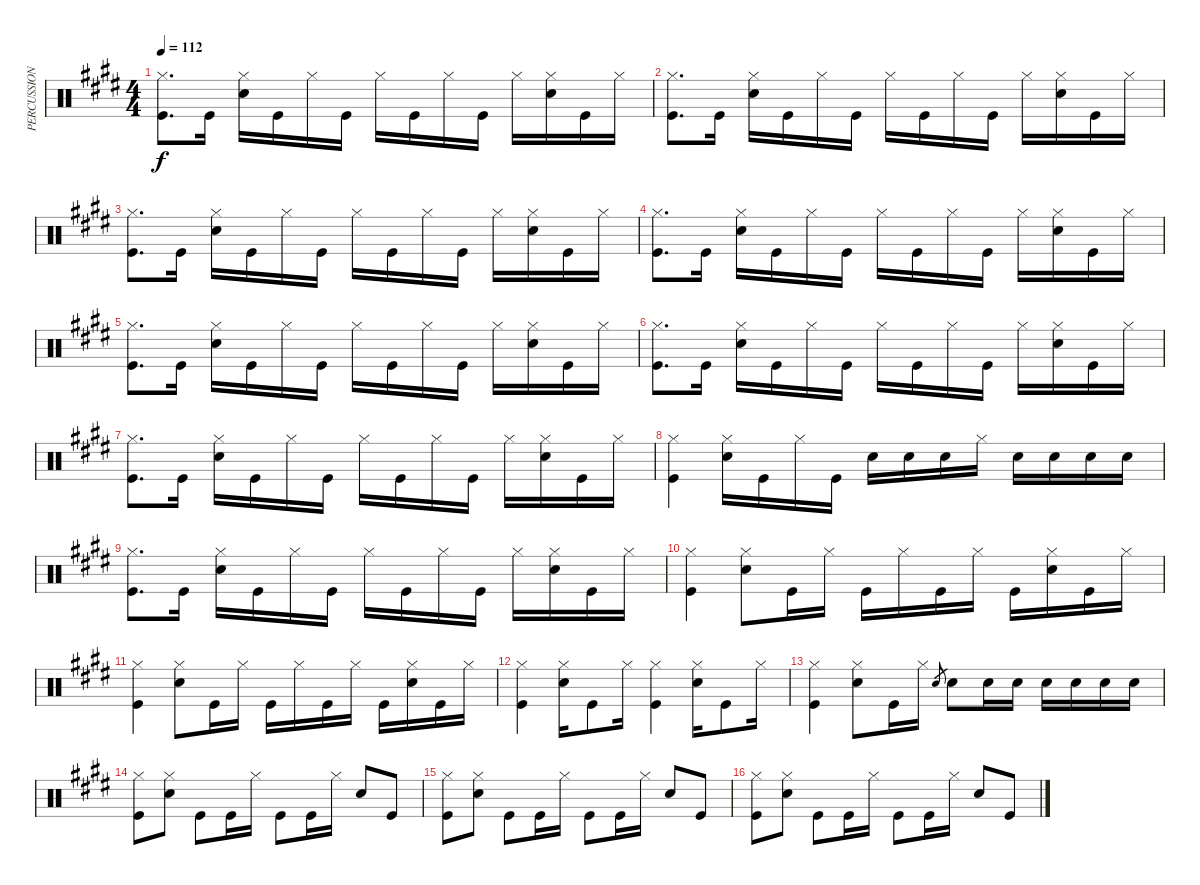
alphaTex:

\track ("PERCUSSION" "PERCUSSION") {instrument percussion}
\staff {score}
\articulation defaults
\ts (4 4)
\tempo 112
\clef neutral
\ks c#minor
("Hi-Hat (closed)" "Kick (hit)").8{d dy f} "Kick (hit)".16 ("Hi-Hat (closed)" "Snare (hit) 2").16 "Kick (hit)".16 "Hi-Hat (closed)".16 "Kick (hit)".16 "Hi-Hat (closed)".16 "Kick (hit)".16 "Hi-Hat (closed)".16 "Kick (hit)".16 "Hi-Hat (closed)".16 ("Hi-Hat (closed)" "Snare (hit) 2").16 "Kick (hit)".16 "Hi-Hat (closed)".16 |
("Hi-Hat (closed)" "Kick (hit)").8{d} "Kick (hit)".16 ("Hi-Hat (closed)" "Snare (hit) 2").16 "Kick (hit)".16 "Hi-Hat (closed)".16 "Kick (hit)".16 "Hi-Hat (closed)".16 "Kick (hit)".16 "Hi-Hat (closed)".16 "Kick (hit)".16 "Hi-Hat (closed)".16 ("Hi-Hat (closed)" "Snare (hit) 2").16 "Kick (hit)".16 "Hi-Hat (closed)".16 |
("Hi-Hat (closed)" "Kick (hit)").8{d} "Kick (hit)".16 ("Hi-Hat (closed)" "Snare (hit) 2").16 "Kick (hit)".16 "Hi-Hat (closed)".16 "Kick (hit)".16 "Hi-Hat (closed)".16 "Kick (hit)".16 "Hi-Hat (closed)".16 "Kick (hit)".16 "Hi-Hat (closed)".16 ("Hi-Hat (closed)" "Snare (hit) 2").16 "Kick (hit)".16 "Hi-Hat (closed)".16 |
("Hi-Hat (closed)" "Kick (hit)").8{d} "Kick (hit)".16 ("Hi-Hat (closed)" "Snare (hit) 2").16 "Kick (hit)".16 "Hi-Hat (closed)".16 "Kick (hit)".16 "Hi-Hat (closed)".16 "Kick (hit)".16 "Hi-Hat (closed)".16 "Kick (hit)".16 "Hi-Hat (closed)".16 ("Hi-Hat (closed)" "Snare (hit) 2").16 "Kick (hit)".16 "Hi-Hat (closed)".16 |
("Hi-Hat (closed)" "Kick (hit)").8{d} "Kick (hit)".16 ("Hi-Hat (closed)" "Snare (hit) 2").16 "Kick (hit)".16 "Hi-Hat (closed)".16 "Kick (hit)".16 "Hi-Hat (closed)".16 "Kick (hit)".16 "Hi-Hat (closed)".16 "Kick (hit)".16 "Hi-Hat (closed)".16 ("Hi-Hat (closed)" "Snare (hit) 2").16 "Kick (hit)".16 "Hi-Hat (closed)".16 |
("Hi-Hat (closed)" "Kick (hit)").8{d} "Kick (hit)".16 ("Hi-Hat (closed)" "Snare (hit) 2").16 "Kick (hit)".16 "Hi-Hat (closed)".16 "Kick (hit)".16 "Hi-Hat (closed)".16 "Kick (hit)".16 "Hi-Hat (closed)".16 "Kick (hit)".16 "Hi-Hat (closed)".16 ("Hi-Hat (closed)" "Snare (hit) 2").16 "Kick (hit)".16 "Hi-Hat (closed)".16 |
("Hi-Hat (closed)" "Kick (hit)").8{d} "Kick (hit)".16 ("Hi-Hat (closed)" "Snare (hit) 2").16 "Kick (hit)".16 "Hi-Hat (closed)".16 "Kick (hit)".16 "Hi-Hat (closed)".16 "Kick (hit)".16 "Hi-Hat (closed)".16 "Kick (hit)".16 "Hi-Hat (closed)".16 ("Hi-Hat (closed)" "Snare (hit) 2").16 "Kick (hit)".16 "Hi-Hat (closed)".16 |
("Hi-Hat (closed)" "Kick (hit)").4 ("Hi-Hat (closed)" "Snare (hit) 2").16 "Kick (hit)".16 "Hi-Hat (closed)".16 "Kick (hit)".16 "Snare (hit) 2".16 "Snare (hit) 2".16 "Snare (hit) 2".16 "Hi-Hat (closed)".16 "Snare (hit) 2".16 "Snare (hit) 2".16 "Snare (hit) 2".16 "Snare (hit) 2".16 |
("Hi-Hat (closed)" "Kick (hit)").8{d} "Kick (hit)".16 ("Hi-Hat (closed)" "Snare (hit) 2").16 "Kick (hit)".16 "Hi-Hat (closed)".16 "Kick (hit)".16 "Hi-Hat (closed)".16 "Kick (hit)".16 "Hi-Hat (closed)".16 "Kick (hit)".16 "Hi-Hat (closed)".16 ("Hi-Hat (closed)" "Snare (hit) 2").16 "Kick (hit)".16 "Hi-Hat (closed)".16 |
("Hi-Hat (closed)" "Kick (hit)").4 ("Hi-Hat (closed)" "Snare (hit) 2").8 "Kick (hit)".16 "Hi-Hat (closed)".16 "Kick (hit)".16 "Hi-Hat (closed)".16 "Kick (hit)".16 "Hi-Hat (closed)".16 "Kick (hit)".16 ("Hi-Hat (closed)" "Snare (hit) 2").16 "Kick (hit)".16 "Hi-Hat (closed)".16 |
("Hi-Hat (closed)" "Kick (hit)").4 ("Hi-Hat (closed)" "Snare (hit) 2").8 "Kick (hit)".16 "Hi-Hat (closed)".16 "Kick (hit)".16 "Hi-Hat (closed)".16 "Kick (hit)".16 "Hi-Hat (closed)".16 "Kick (hit)".16 ("Hi-Hat (closed)" "Snare (hit) 2").16 "Kick (hit)".16 "Hi-Hat (closed)".16 |
("Hi-Hat (closed)" "Kick (hit)").4 ("Hi-Hat (closed)" "Snare (hit) 2").16 "Kick (hit)".8 "Hi-Hat (closed)".16 ("Hi-Hat (closed)" "Kick (hit)").4 ("Hi-Hat (closed)" "Snare (hit) 2").16 "Kick (hit)".8 "Hi-Hat (closed)".16 |
("Hi-Hat (closed)" "Kick (hit)").4 ("Hi-Hat (closed)" "Snare (hit) 2").8 "Kick (hit)".16 "Hi-Hat (closed)".16 "Snare (hit) 2".8{gr} "Snare (hit) 2".8 "Snare (hit) 2".16 "Snare (hit) 2".16 "Snare (hit) 2".16 "Snare (hit) 2".16 "Snare (hit) 2".16 "Snare (hit) 2".16 |
("Hi-Hat (closed)" "Kick (hit)").8 ("Hi-Hat (closed)" "Snare (hit) 2").8 "Kick (hit)".8 "Kick (hit)".16 "Hi-Hat (closed)".16 "Kick (hit)".8 "Kick (hit)".16 "Hi-Hat (closed)".16 "Snare (hit) 2".8 "Kick (hit)".8 |
("Hi-Hat (closed)" "Kick (hit)").8 ("Hi-Hat (closed)" "Snare (hit) 2").8 "Kick (hit)".8 "Kick (hit)".16 "Hi-Hat (closed)".16 "Kick (hit)".8 "Kick (hit)".16 "Hi-Hat (closed)".16 "Snare (hit) 2".8 "Kick (hit)".8 |
("Hi-Hat (closed)" "Kick (hit)").8 ("Hi-Hat (closed)" "Snare (hit) 2").8 "Kick (hit)".8 "Kick (hit)".16 "Hi-Hat (closed)".16 "Kick (hit)".8 "Kick (hit)".16 "Hi-Hat (closed)".16 "Snare (hit) 2".8 "Kick (hit)".8
